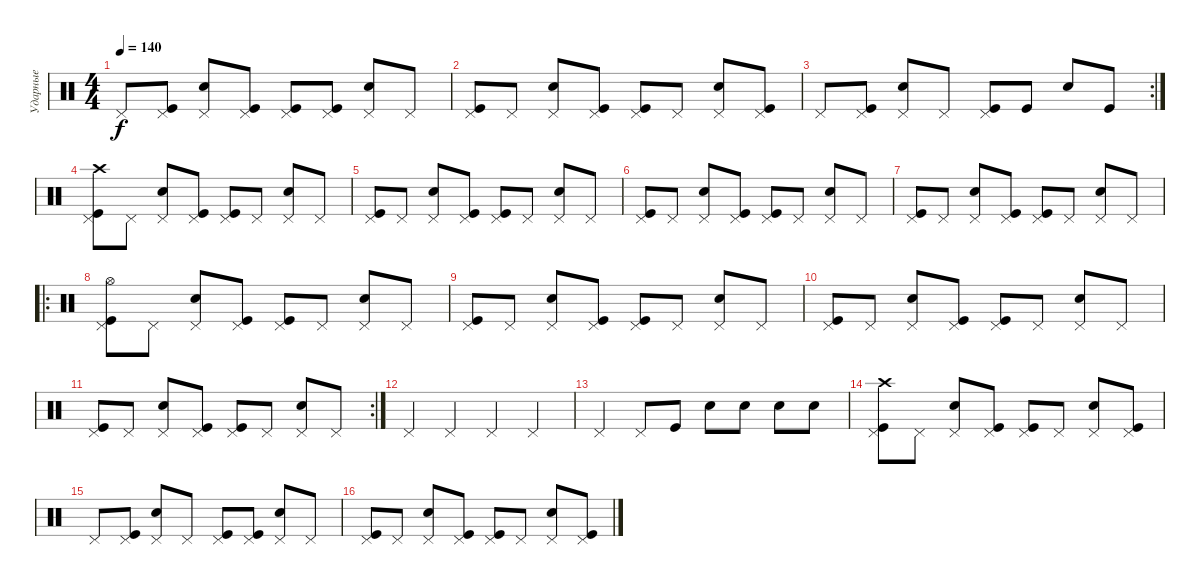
\track ("Ударные" "Ударные") {instrument percussion}
\staff {score}
\articulation defaults
\ts (4 4)
\tempo 140
\clef neutral
\ks c "Pedal Hi-Hat (hit)".8{dy f}
("Pedal Hi-Hat (hit)" "Kick (hit)").8 ("Pedal Hi-Hat (hit)" "Snare (hit) 2").8 ("Pedal Hi-Hat (hit)" "Kick (hit)").8 ("Pedal Hi-Hat (hit)" "Kick (hit)").8 ("Pedal Hi-Hat (hit)" "Kick (hit)").8 ("Pedal Hi-Hat (hit)" "Snare (hit) 2").8 "Pedal Hi-Hat (hit)".8 |
("Pedal Hi-Hat (hit)" "Kick (hit)").8 "Pedal Hi-Hat (hit)".8 ("Pedal Hi-Hat (hit)" "Snare (hit) 2").8 ("Pedal Hi-Hat (hit)" "Kick (hit)").8 ("Pedal Hi-Hat (hit)" "Kick (hit)").8 "Pedal Hi-Hat (hit)".8 ("Pedal Hi-Hat (hit)" "Snare (hit) 2").8 ("Pedal Hi-Hat (hit)" "Kick (hit)").8 |
\rc 2 "Pedal Hi-Hat (hit)".8
("Pedal Hi-Hat (hit)" "Kick (hit)").8 ("Pedal Hi-Hat (hit)" "Snare (hit) 2").8 "Pedal Hi-Hat (hit)".8 ("Pedal Hi-Hat (hit)" "Kick (hit)").8 "Kick (hit)".8 "Snare (hit) 2".8 "Kick (hit)".8 |
("Pedal Hi-Hat (hit)" "Kick (hit)" "Crash high (hit)").8 "Pedal Hi-Hat (hit)".8 ("Pedal Hi-Hat (hit)" "Snare (hit) 2").8 ("Pedal Hi-Hat (hit)" "Kick (hit)").8 ("Pedal Hi-Hat (hit)" "Kick (hit)").8 "Pedal Hi-Hat (hit)".8 ("Pedal Hi-Hat (hit)" "Snare (hit) 2").8 "Pedal Hi-Hat (hit)".8 |
("Pedal Hi-Hat (hit)" "Kick (hit)").8 "Pedal Hi-Hat (hit)".8 ("Pedal Hi-Hat (hit)" "Snare (hit) 2").8 ("Pedal Hi-Hat (hit)" "Kick (hit)").8 ("Pedal Hi-Hat (hit)" "Kick (hit)").8 "Pedal Hi-Hat (hit)".8 ("Pedal Hi-Hat (hit)" "Snare (hit) 2").8 "Pedal Hi-Hat (hit)".8 |
("Pedal Hi-Hat (hit)" "Kick (hit)").8 "Pedal Hi-Hat (hit)".8 ("Pedal Hi-Hat (hit)" "Snare (hit) 2").8 ("Pedal Hi-Hat (hit)" "Kick (hit)").8 ("Pedal Hi-Hat (hit)" "Kick (hit)").8 "Pedal Hi-Hat (hit)".8 ("Pedal Hi-Hat (hit)" "Snare (hit) 2").8 "Pedal Hi-Hat (hit)".8 |
("Pedal Hi-Hat (hit)" "Kick (hit)").8 "Pedal Hi-Hat (hit)".8 ("Pedal Hi-Hat (hit)" "Snare (hit) 2").8 ("Pedal Hi-Hat (hit)" "Kick (hit)").8 ("Pedal Hi-Hat (hit)" "Kick (hit)").8 "Pedal Hi-Hat (hit)".8 ("Pedal Hi-Hat (hit)" "Snare (hit) 2").8 "Pedal Hi-Hat (hit)".8 |
\ro
("Pedal Hi-Hat (hit)" "Kick (hit)" "Hi-Hat (open)").8 "Pedal Hi-Hat (hit)".8 ("Pedal Hi-Hat (hit)" "Snare (hit) 2").8 ("Pedal Hi-Hat (hit)" "Kick (hit)").8 ("Pedal Hi-Hat (hit)" "Kick (hit)").8 "Pedal Hi-Hat (hit)".8 ("Pedal Hi-Hat (hit)" "Snare (hit) 2").8 "Pedal Hi-Hat (hit)".8 |
("Pedal Hi-Hat (hit)" "Kick (hit)").8 "Pedal Hi-Hat (hit)".8 ("Pedal Hi-Hat (hit)" "Snare (hit) 2").8 ("Pedal Hi-Hat (hit)" "Kick (hit)").8 ("Pedal Hi-Hat (hit)" "Kick (hit)").8 "Pedal Hi-Hat (hit)".8 ("Pedal Hi-Hat (hit)" "Snare (hit) 2").8 "Pedal Hi-Hat (hit)".8 |
("Pedal Hi-Hat (hit)" "Kick (hit)").8 "Pedal Hi-Hat (hit)".8 ("Pedal Hi-Hat (hit)" "Snare (hit) 2").8 ("Pedal Hi-Hat (hit)" "Kick (hit)").8 ("Pedal Hi-Hat (hit)" "Kick (hit)").8 "Pedal Hi-Hat (hit)".8 ("Pedal Hi-Hat (hit)" "Snare (hit) 2").8 "Pedal Hi-Hat (hit)".8 |
\rc 2
("Pedal Hi-Hat (hit)" "Kick (hit)").8 "Pedal Hi-Hat (hit)".8 ("Pedal Hi-Hat (hit)" "Snare (hit) 2").8 ("Pedal Hi-Hat (hit)" "Kick (hit)").8 ("Pedal Hi-Hat (hit)" "Kick (hit)").8 "Pedal Hi-Hat (hit)".8 ("Pedal Hi-Hat (hit)" "Snare (hit) 2").8 "Pedal Hi-Hat (hit)".8 |
"Pedal Hi-Hat (hit)".4 "Pedal Hi-Hat (hit)".4 "Pedal Hi-Hat (hit)".4 "Pedal Hi-Hat (hit)".4 |
"Pedal Hi-Hat (hit)".4 "Pedal Hi-Hat (hit)".8 "Kick (hit)".8 "Snare (hit) 2".8 "Snare (hit) 2".8 "Snare (hit) 2".8 "Snare (hit) 2".8 |
("Pedal Hi-Hat (hit)" "Kick (hit)" "Crash high (hit)").8 "Pedal Hi-Hat (hit)".8 ("Pedal Hi-Hat (hit)" "Snare (hit) 2").8 ("Pedal Hi-Hat (hit)" "Kick (hit)").8 ("Pedal Hi-Hat (hit)" "Kick (hit)").8 "Pedal Hi-Hat (hit)".8 ("Pedal Hi-Hat (hit)" "Snare (hit) 2").8 ("Pedal Hi-Hat (hit)" "Kick (hit)").8 |
"Pedal Hi-Hat (hit)".8 ("Pedal Hi-Hat (hit)" "Kick (hit)").8 ("Pedal Hi-Hat (hit)" "Snare (hit) 2").8 "Pedal Hi-Hat (hit)".8 ("Pedal Hi-Hat (hit)" "Kick (hit)").8 ("Pedal Hi-Hat (hit)" "Kick (hit)").8 ("Pedal Hi-Hat (hit)" "Snare (hit) 2").8 "Pedal Hi-Hat (hit)".8 |
("Pedal Hi-Hat (hit)" "Kick (hit)").8 "Pedal Hi-Hat (hit)".8 ("Pedal Hi-Hat (hit)" "Snare (hit) 2").8 ("Pedal Hi-Hat (hit)" "Kick (hit)").8 ("Pedal Hi-Hat (hit)" "Kick (hit)").8 "Pedal Hi-Hat (hit)".8 ("Pedal Hi-Hat (hit)" "Snare (hit) 2").8 ("Pedal Hi-Hat (hit)" "Kick (hit)").8
